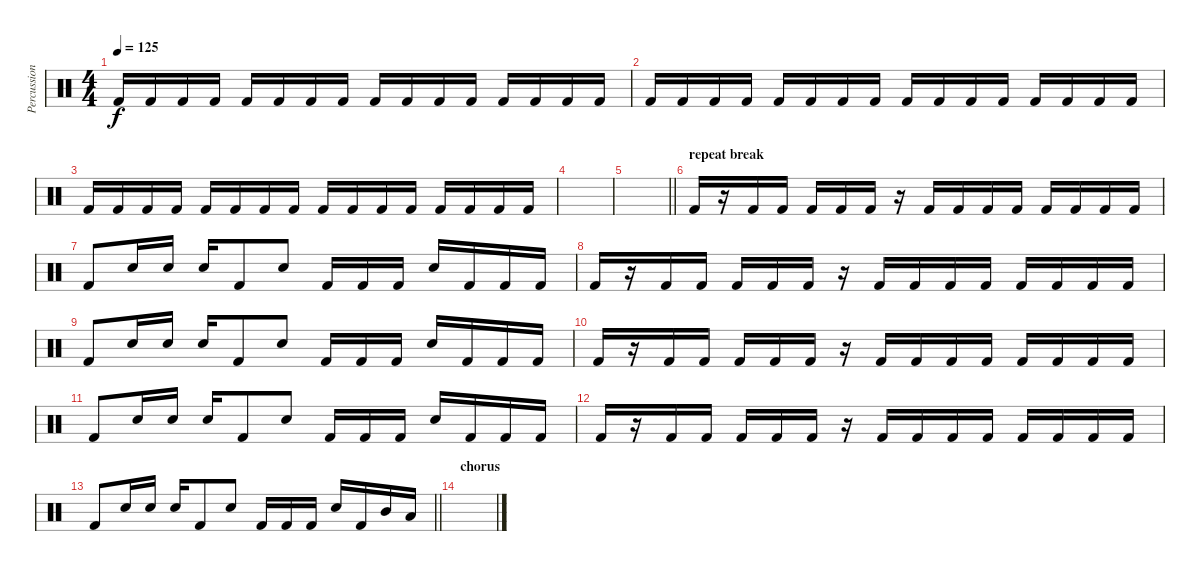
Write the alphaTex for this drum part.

\track ("Percussion" "Percussion") {instrument percussion}
\staff {score}
\articulation defaults
\ts (4 4)
\tempo 125
\clef neutral
\ks c "Kick (hit) 2".16{dy f} "Kick (hit) 2".16 "Kick (hit) 2".16 "Kick (hit) 2".16 "Kick (hit) 2".16 "Kick (hit) 2".16 "Kick (hit) 2".16 "Kick (hit) 2".16 "Kick (hit) 2".16 "Kick (hit) 2".16 "Kick (hit) 2".16 "Kick (hit) 2".16 "Kick (hit) 2".16 "Kick (hit) 2".16 "Kick (hit) 2".16 "Kick (hit) 2".16
|
"Kick (hit) 2".16 "Kick (hit) 2".16 "Kick (hit) 2".16 "Kick (hit) 2".16 "Kick (hit) 2".16 "Kick (hit) 2".16 "Kick (hit) 2".16 "Kick (hit) 2".16 "Kick (hit) 2".16 "Kick (hit) 2".16 "Kick (hit) 2".16 "Kick (hit) 2".16 "Kick (hit) 2".16 "Kick (hit) 2".16 "Kick (hit) 2".16 "Kick (hit) 2".16 |
"Kick (hit) 2".16 "Kick (hit) 2".16 "Kick (hit) 2".16 "Kick (hit) 2".16 "Kick (hit) 2".16 "Kick (hit) 2".16 "Kick (hit) 2".16 "Kick (hit) 2".16 "Kick (hit) 2".16 "Kick (hit) 2".16 "Kick (hit) 2".16 "Kick (hit) 2".16 "Kick (hit) 2".16 "Kick (hit) 2".16 "Kick (hit) 2".16 "Kick (hit) 2".16 |
|
\barLineRight lightlight
|
\section ("" "repeat break")
"Kick (hit) 2".16 r.16 "Kick (hit) 2".16 "Kick (hit) 2".16 "Kick (hit) 2".16 "Kick (hit) 2".16 "Kick (hit) 2".16 r.16 "Kick (hit) 2".16 "Kick (hit) 2".16 "Kick (hit) 2".16 "Kick (hit) 2".16 "Kick (hit) 2".16 "Kick (hit) 2".16 "Kick (hit) 2".16 "Kick (hit) 2".16 |
"Kick (hit) 2".8 "Electric Snare (hit)".16 "Electric Snare (hit)".16 "Electric Snare (hit)".16 "Kick (hit) 2".8 "Electric Snare (hit)".8 "Kick (hit) 2".16 "Kick (hit) 2".16 "Kick (hit) 2".16 "Electric Snare (hit)".16 "Kick (hit) 2".16 "Kick (hit) 2".16 "Kick (hit) 2".16 |
"Kick (hit) 2".16 r.16 "Kick (hit) 2".16 "Kick (hit) 2".16 "Kick (hit) 2".16 "Kick (hit) 2".16 "Kick (hit) 2".16 r.16 "Kick (hit) 2".16 "Kick (hit) 2".16 "Kick (hit) 2".16 "Kick (hit) 2".16 "Kick (hit) 2".16 "Kick (hit) 2".16 "Kick (hit) 2".16 "Kick (hit) 2".16 |
"Kick (hit) 2".8 "Electric Snare (hit)".16 "Electric Snare (hit)".16 "Electric Snare (hit)".16 "Kick (hit) 2".8 "Electric Snare (hit)".8 "Kick (hit) 2".16 "Kick (hit) 2".16 "Kick (hit) 2".16 "Electric Snare (hit)".16 "Kick (hit) 2".16 "Kick (hit) 2".16 "Kick (hit) 2".16 |
"Kick (hit) 2".16 r.16 "Kick (hit) 2".16 "Kick (hit) 2".16 "Kick (hit) 2".16 "Kick (hit) 2".16 "Kick (hit) 2".16 r.16 "Kick (hit) 2".16 "Kick (hit) 2".16 "Kick (hit) 2".16 "Kick (hit) 2".16 "Kick (hit) 2".16 "Kick (hit) 2".16 "Kick (hit) 2".16 "Kick (hit) 2".16 |
"Kick (hit) 2".8 "Electric Snare (hit)".16 "Electric Snare (hit)".16 "Electric Snare (hit)".16 "Kick (hit) 2".8 "Electric Snare (hit)".8 "Kick (hit) 2".16 "Kick (hit) 2".16 "Kick (hit) 2".16 "Electric Snare (hit)".16 "Kick (hit) 2".16 "Kick (hit) 2".16 "Kick (hit) 2".16 |
"Kick (hit) 2".16 r.16 "Kick (hit) 2".16 "Kick (hit) 2".16 "Kick (hit) 2".16 "Kick (hit) 2".16 "Kick (hit) 2".16 r.16 "Kick (hit) 2".16 "Kick (hit) 2".16 "Kick (hit) 2".16 "Kick (hit) 2".16 "Kick (hit) 2".16 "Kick (hit) 2".16 "Kick (hit) 2".16 "Kick (hit) 2".16 |
\barLineRight lightlight "Kick (hit) 2".8 "Electric Snare (hit)".16 "Electric Snare (hit)".16 "Electric Snare (hit)".16 "Kick (hit) 2".8 "Electric Snare (hit)".8 "Kick (hit) 2".16 "Kick (hit) 2".16 "Kick (hit) 2".16 "Electric Snare (hit)".16 "Kick (hit) 2".16 "Mid Tom (hit)".16 "Low Tom (hit)".16
|
\section ("" "chorus")
